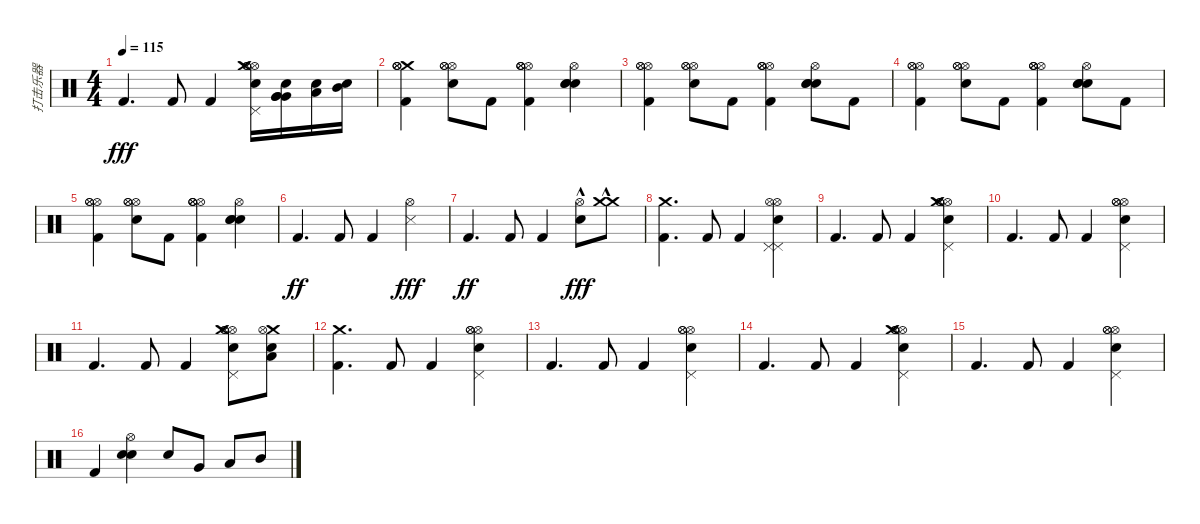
\track ("打击乐器" "打击乐器") {instrument percussion}
\staff {score}
\articulation defaults
\ts (4 4)
\tempo 115
\clef neutral
\ks c "Kick (hit) 2".4{d dy fff} "Kick (hit) 2".8 "Kick (hit) 2".4
("Hi-Hat (open)" "Hi-Hat (open)" "Hi-Hat (open)" "Electric Snare (hit)" "Pedal Hi-Hat (hit)" "Crash medium (hit)").16 ("Very Low Tom (hit)" "Very Low Tom (hit)" "Very Low Tom (hit)" "Electric Snare (hit)").16 ("Low Tom (hit)" "Electric Snare (hit)").16 ("Mid Tom (hit)" "Electric Snare (hit)").16 |
("Crash medium (hit)" "Hi-Hat (open)" "Hi-Hat (open)" "Hi-Hat (open)" "Kick (hit) 2").4 ("Hi-Hat (open)" "Hi-Hat (open)" "Hi-Hat (open)" "Electric Snare (hit)").8 "Kick (hit) 2".8 ("Hi-Hat (open)" "Hi-Hat (open)" "Hi-Hat (open)" "Hi-Hat (open)" "Kick (hit) 2").4 ("Electric Snare (hit)" "Electric Snare (hit)" "Electric Snare (hit)" "Hi-Hat (open)").4 |
("Hi-Hat (open)" "Hi-Hat (open)" "Hi-Hat (open)" "Kick (hit) 2").4 ("Hi-Hat (open)" "Hi-Hat (open)" "Hi-Hat (open)" "Electric Snare (hit)").8 "Kick (hit) 2".8 ("Hi-Hat (open)" "Hi-Hat (open)" "Hi-Hat (open)" "Hi-Hat (open)" "Kick (hit) 2").4 ("Electric Snare (hit)" "Electric Snare (hit)" "Electric Snare (hit)" "Hi-Hat (open)").8 "Kick (hit) 2".8 |
("Hi-Hat (open)" "Hi-Hat (open)" "Hi-Hat (open)" "Kick (hit) 2").4 ("Hi-Hat (open)" "Hi-Hat (open)" "Hi-Hat (open)" "Electric Snare (hit)").8 "Kick (hit) 2".8 ("Hi-Hat (open)" "Hi-Hat (open)" "Hi-Hat (open)" "Hi-Hat (open)" "Kick (hit) 2").4 ("Electric Snare (hit)" "Electric Snare (hit)" "Electric Snare (hit)" "Hi-Hat (open)").8 "Kick (hit) 2".8 |
("Hi-Hat (open)" "Hi-Hat (open)" "Hi-Hat (open)" "Kick (hit) 2").4 ("Hi-Hat (open)" "Hi-Hat (open)" "Hi-Hat (open)" "Electric Snare (hit)").8 "Kick (hit) 2".8 ("Hi-Hat (open)" "Hi-Hat (open)" "Hi-Hat (open)" "Hi-Hat (open)" "Kick (hit) 2").4 ("Electric Snare (hit)" "Electric Snare (hit)" "Electric Snare (hit)" "Hi-Hat (open)").4 |
"Kick (hit) 2".4{d dy ff} "Kick (hit) 2".8 "Kick (hit) 2".4 ("Snare (side stick) 3" "Hi-Hat (open)").4{dy fff} |
"Kick (hit) 2".4{d dy ff} "Kick (hit) 2".8 "Kick (hit) 2".4 ("Electric Snare (hit)" "Hi-Hat (open)"{hac}).8{dy fff} ("Crash medium (hit)" "Crash medium (hit)"{hac}).8 |
("Crash medium (hit)" "Kick (hit) 2").4{d} "Kick (hit) 2".8 "Kick (hit) 2".4 ("Pedal Hi-Hat (hit)" "Electric Snare (hit)" "Hi-Hat (open)" "Pedal Hi-Hat (hit)" "Hi-Hat (open)").4 |
"Kick (hit) 2".4{d} "Kick (hit) 2".8 "Kick (hit) 2".4 ("Hi-Hat (open)" "Hi-Hat (open)" "Hi-Hat (open)" "Electric Snare (hit)" "Pedal Hi-Hat (hit)" "Crash medium (hit)").4 |
"Kick (hit) 2".4{d} "Kick (hit) 2".8 "Kick (hit) 2".4 ("Hi-Hat (open)" "Hi-Hat (open)" "Hi-Hat (open)" "Electric Snare (hit)" "Pedal Hi-Hat (hit)").4 |
"Kick (hit) 2".4{d} "Kick (hit) 2".8 "Kick (hit) 2".4 ("Hi-Hat (open)" "Hi-Hat (open)" "Hi-Hat (open)" "Electric Snare (hit)" "Pedal Hi-Hat (hit)" "Crash medium (hit)").8 ("Crash medium (hit)" "Hi-Hat (open)" "Low Tom (hit)" "Electric Snare (hit)").8 |
("Crash medium (hit)" "Kick (hit) 2").4{d} "Kick (hit) 2".8 "Kick (hit) 2".4 ("Hi-Hat (open)" "Hi-Hat (open)" "Hi-Hat (open)" "Electric Snare (hit)" "Pedal Hi-Hat (hit)").4 |
"Kick (hit) 2".4{d} "Kick (hit) 2".8 "Kick (hit) 2".4 ("Hi-Hat (open)" "Hi-Hat (open)" "Hi-Hat (open)" "Electric Snare (hit)" "Pedal Hi-Hat (hit)").4 |
"Kick (hit) 2".4{d} "Kick (hit) 2".8 "Kick (hit) 2".4 ("Hi-Hat (open)" "Hi-Hat (open)" "Hi-Hat (open)" "Electric Snare (hit)" "Pedal Hi-Hat (hit)" "Crash medium (hit)").4 |
"Kick (hit) 2".4{d} "Kick (hit) 2".8 "Kick (hit) 2".4 ("Hi-Hat (open)" "Hi-Hat (open)" "Hi-Hat (open)" "Electric Snare (hit)" "Pedal Hi-Hat (hit)").4 |
"Kick (hit) 2".4 ("Electric Snare (hit)" "Electric Snare (hit)" "Hi-Hat (open)").4 "Electric Snare (hit)".8 "Very Low Tom (hit)".8 "Low Tom (hit)".8 "Mid Tom (hit)".8
